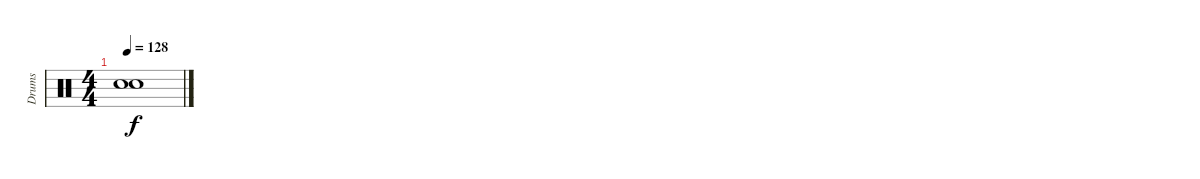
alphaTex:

\track ("Drums" "Drums") {instrument percussion}
\staff {score}
\articulation defaults
\ts (4 4)
\tempo 128
\clef neutral
\ks c
("Snare (hit)"{t} "Snare (hit)"{t}).1{dy f}
